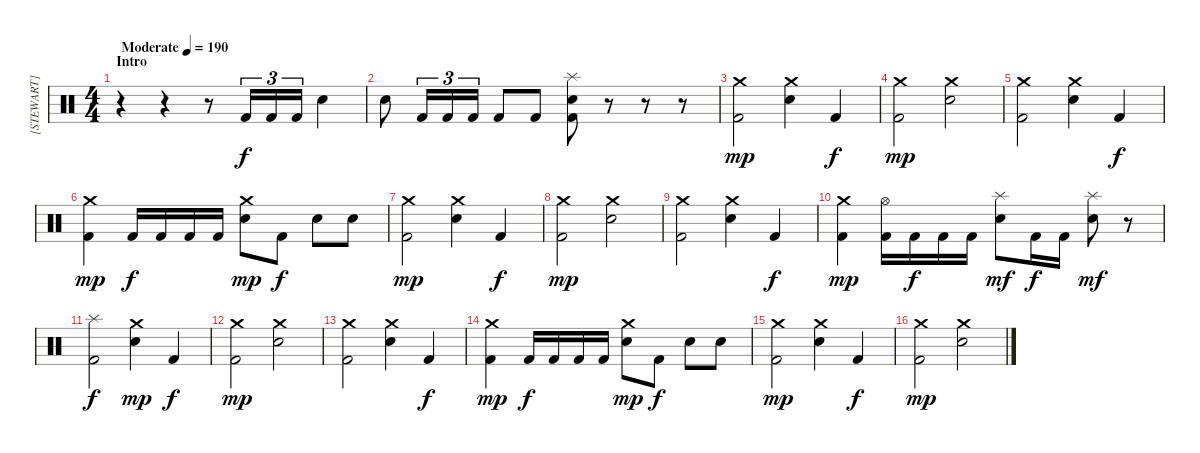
\track ("[STEWART]" "[STEWART]") {instrument percussion}
\staff {score}
\articulation defaults
\ts (4 4)
\section ("" "Intro")
\tempo (190 "Moderate")
\clef neutral
\ks c
r.4{dy f} r.4 r.8 "Kick (hit) 2".16{tu (3 2)} "Kick (hit) 2".16{tu (3 2)} "Kick (hit) 2".16{tu (3 2)} "Electric Snare (hit)".4 |
"Electric Snare (hit)".8 "Kick (hit) 2".16{tu (3 2)} "Kick (hit) 2".16{tu (3 2)} "Kick (hit) 2".16{tu (3 2)} "Kick (hit) 2".8 "Kick (hit) 2".8 ("Splash (hit)" "Electric Snare (hit)" "Kick (hit) 2").8 r.8 r.8 r.8 |
("Crash medium (hit)" "Kick (hit) 2").2{dy mp} ("Crash medium (hit)" "Electric Snare (hit)").4 "Kick (hit) 2".4{dy f} |
("Crash medium (hit)" "Kick (hit) 2").2{dy mp} ("Crash medium (hit)" "Electric Snare (hit)").2 |
("Crash medium (hit)" "Kick (hit) 2").2 ("Crash medium (hit)" "Electric Snare (hit)").4 "Kick (hit) 2".4{dy f} |
("Crash medium (hit)" "Kick (hit) 2").4{dy mp} "Kick (hit) 2".16{dy f} "Kick (hit) 2".16 "Kick (hit) 2".16 "Kick (hit) 2".16 ("Crash medium (hit)" "Electric Snare (hit)").8{dy mp} "Kick (hit) 2".8{dy f} "Electric Snare (hit)".8 "Electric Snare (hit)".8 |
("Crash medium (hit)" "Kick (hit) 2").2{dy mp} ("Crash medium (hit)" "Electric Snare (hit)").4 "Kick (hit) 2".4{dy f} |
("Crash medium (hit)" "Kick (hit) 2").2{dy mp} ("Crash medium (hit)" "Electric Snare (hit)").2 |
("Crash medium (hit)" "Kick (hit) 2").2 ("Crash medium (hit)" "Electric Snare (hit)").4 "Kick (hit) 2".4{dy f} |
("Crash medium (hit)" "Kick (hit) 2").4{dy mp} ("Hi-Hat (open)" "Kick (hit) 2").16 "Kick (hit) 2".16{dy f} "Kick (hit) 2".16 "Kick (hit) 2".16 ("Splash (hit)" "Electric Snare (hit)").8{dy mf} "Kick (hit) 2".16{dy f} "Kick (hit) 2".16 ("Splash (hit)" "Electric Snare (hit)").8{dy mf} r.8 |
("Splash (hit)" "Kick (hit) 2").2{dy f} ("Crash medium (hit)" "Electric Snare (hit)").4{dy mp} "Kick (hit) 2".4{dy f} |
("Crash medium (hit)" "Kick (hit) 2").2{dy mp} ("Crash medium (hit)" "Electric Snare (hit)").2 |
("Crash medium (hit)" "Kick (hit) 2").2 ("Crash medium (hit)" "Electric Snare (hit)").4 "Kick (hit) 2".4{dy f} |
("Crash medium (hit)" "Kick (hit) 2").4{dy mp} "Kick (hit) 2".16{dy f} "Kick (hit) 2".16 "Kick (hit) 2".16 "Kick (hit) 2".16 ("Crash medium (hit)" "Electric Snare (hit)").8{dy mp} "Kick (hit) 2".8{dy f} "Electric Snare (hit)".8 "Electric Snare (hit)".8 |
("Crash medium (hit)" "Kick (hit) 2").2{dy mp} ("Crash medium (hit)" "Electric Snare (hit)").4 "Kick (hit) 2".4{dy f} |
("Crash medium (hit)" "Kick (hit) 2").2{dy mp} ("Crash medium (hit)" "Electric Snare (hit)").2
